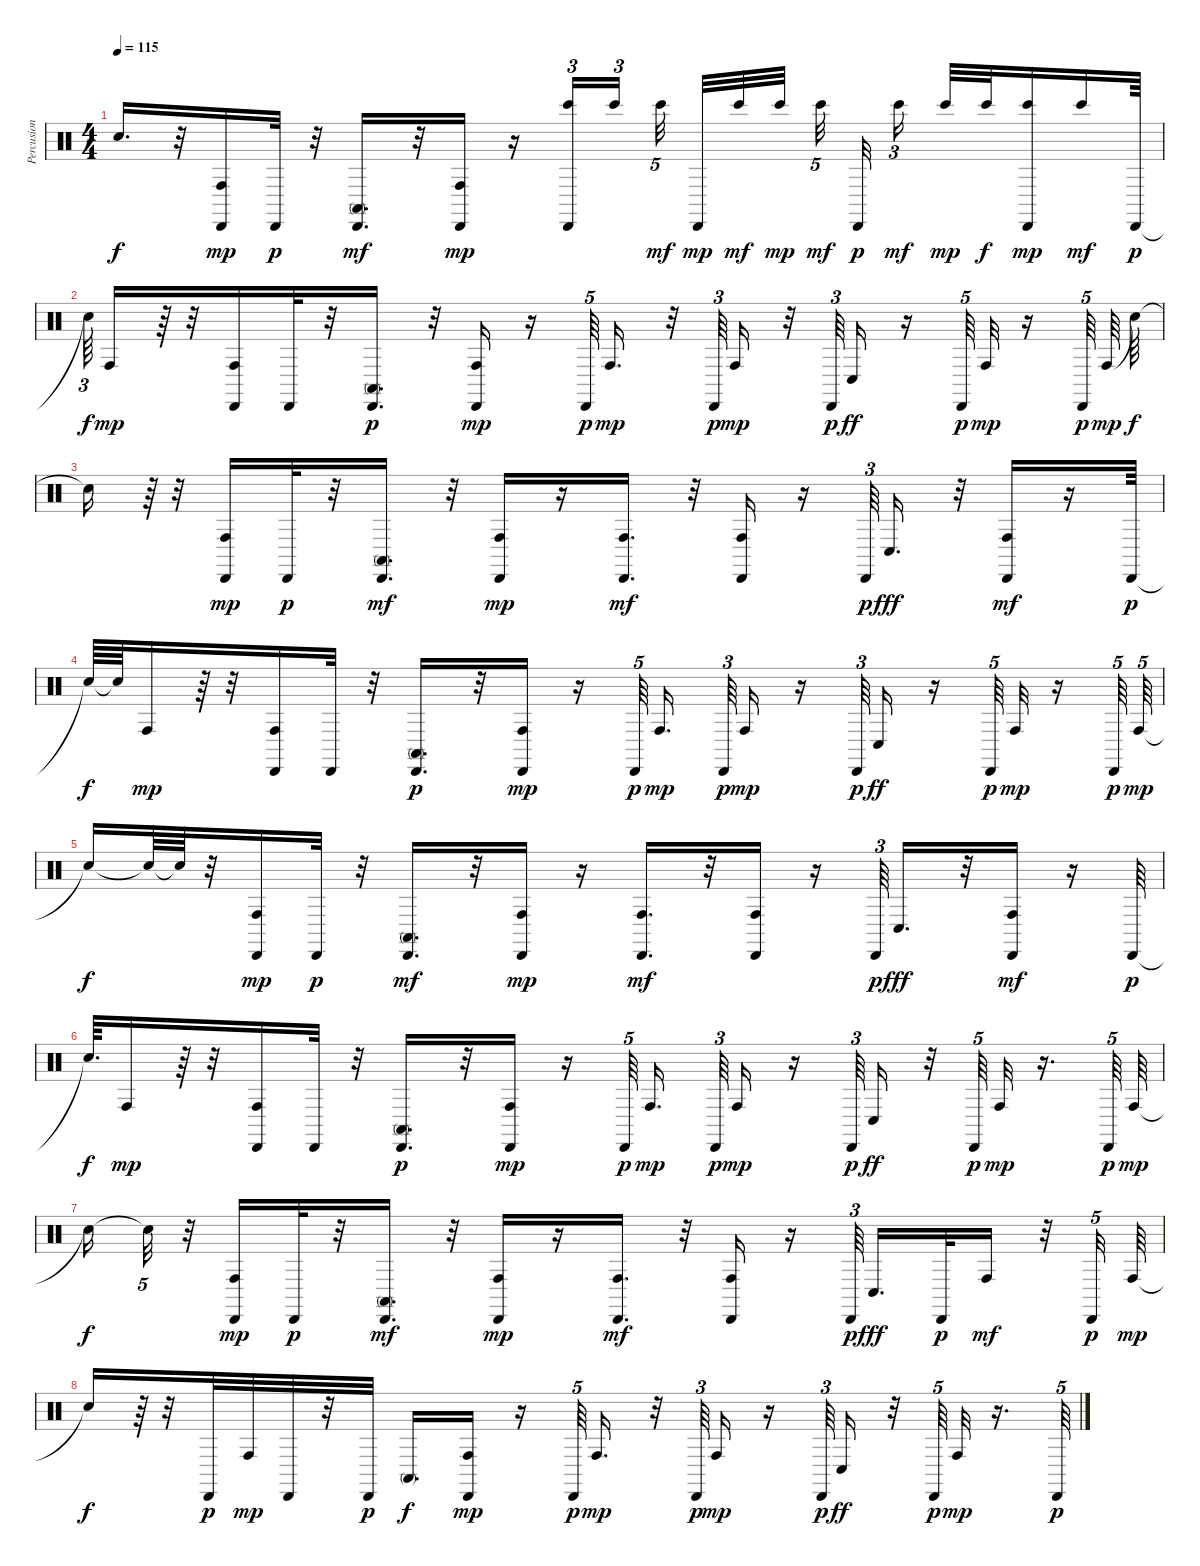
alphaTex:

\track ("Percusion" "Percusion") {instrument percussion}
\staff {score}
\articulation defaults
\ts (4 4)
\tempo 115
\clef neutral
\ks c "Snare (hit)"{t}.16{d dy f}
r.32 ("Cabasa (hit)" "Conga high (hit)").16{dy mp} "Cabasa (hit)".32{dy p} r.32 ("Cabasa (hit)" "Conga high (mute)").16{d dy mf} r.32 ("Cabasa (hit)" "Conga high (hit)").16{dy mp} r.16 ("Cabasa (hit)" "Bongo High (hit)").16{tu (3 2)} "Bongo High (hit)".16{tu (3 2)} "Bongo High (hit)".32{tu (5 4) dy mf beam splitsecondary} "Cabasa (hit)".32{dy mp} "Bongo High (hit)".32{dy mf} "Bongo High (hit)".32{dy mp beam splitsecondary} "Bongo High (hit)".32{tu (5 4) dy mf} "Cabasa (hit)".32{dy p} "Bongo High (hit)".16{tu (3 2) dy mf beam splitsecondary} "Bongo High (hit)".32{dy mp} "Bongo High (hit)".32{dy f} ("Cabasa (hit)" "Bongo High (hit)").16{dy mp} "Bongo High (hit)".16{dy mf} "Cabasa (hit)".64{dy p} |
"Snare (hit)"{t}.64{tu (3 2) dy f} "Conga high (hit)".16{dy mp} r.64 r.32 ("Cabasa (hit)" "Conga high (hit)").16 "Cabasa (hit)".32 r.32 ("Cabasa (hit)" "Conga high (mute)").16{d dy p} r.32 ("Cabasa (hit)" "Conga high (hit)").16{dy mp} r.16 "Cabasa (hit)".64{tu (5 4) dy p} "Conga high (hit)".16{d dy mp} r.32 "Cabasa (hit)".64{tu (3 2) dy p} "Conga high (hit)".16{dy mp} r.32 "Cabasa (hit)".64{tu (3 2) dy p} "Conga low (hit)".16{dy ff} r.16 "Cabasa (hit)".64{tu (5 4) dy p} "Conga high (hit)".32{dy mp} r.16 "Cabasa (hit)".64{tu (5 4) dy p} "Conga high (hit)".64{dy mp} "Snare (hit)"{t}.64{dy f} |
"Snare (hit)"{t}.16 r.64{tu (5 4)} r.32 ("Cabasa (hit)" "Conga high (hit)").16{dy mp} "Cabasa (hit)".32{dy p} r.32 ("Cabasa (hit)" "Conga high (mute)").16{d dy mf} r.32 ("Cabasa (hit)" "Conga high (hit)").16{dy mp} r.16 ("Cabasa (hit)" "Conga high (hit)").16{d dy mf} r.32 ("Cabasa (hit)" "Conga high (hit)").16 r.16 "Cabasa (hit)".64{tu (3 2) dy p} "Conga low (hit)".16{d dy fff} r.32 ("Cabasa (hit)" "Conga high (hit)").16{dy mf} r.16 "Cabasa (hit)".64{dy p} |
"Snare (hit)"{t}.64{dy f} "Snare (hit)"{t}.64 "Conga high (hit)".16{dy mp} r.64 r.32 ("Cabasa (hit)" "Conga high (hit)").16 "Cabasa (hit)".32 r.32 ("Cabasa (hit)" "Conga high (mute)").16{d dy p} r.32 ("Cabasa (hit)" "Conga high (hit)").16{dy mp} r.16 "Cabasa (hit)".64{tu (5 4) dy p beam splitsecondary} "Conga high (hit)".16{d dy mp beam splitsecondary} "Cabasa (hit)".64{tu (3 2) dy p} "Conga high (hit)".16{dy mp} r.16 "Cabasa (hit)".64{tu (3 2) dy p} "Conga low (hit)".16{dy ff} r.16 "Cabasa (hit)".64{tu (5 4) dy p} "Conga high (hit)".32{dy mp} r.16 "Cabasa (hit)".64{tu (5 4) dy p} "Conga high (hit)".64{tu (5 4) dy mp} |
"Snare (hit)"{t}.16{dy f} "Snare (hit)"{t}.64 "Snare (hit)"{t}.64 r.32 ("Cabasa (hit)" "Conga high (hit)").16{dy mp} "Cabasa (hit)".32{dy p} r.32 ("Cabasa (hit)" "Conga high (mute)").16{d dy mf} r.32 ("Cabasa (hit)" "Conga high (hit)").16{dy mp} r.16 ("Cabasa (hit)" "Conga high (hit)").16{d dy mf} r.32 ("Cabasa (hit)" "Conga high (hit)").16 r.16 "Cabasa (hit)".64{tu (3 2) dy p} "Conga low (hit)".16{d dy fff} r.32 ("Cabasa (hit)" "Conga high (hit)").16{dy mf} r.16 "Cabasa (hit)".64{dy p} |
"Snare (hit)"{t}.64{d dy f} "Conga high (hit)".16{dy mp} r.64 r.32 ("Cabasa (hit)" "Conga high (hit)").16 "Cabasa (hit)".32 r.32 ("Cabasa (hit)" "Conga high (mute)").16{d dy p} r.32 ("Cabasa (hit)" "Conga high (hit)").16{dy mp} r.16 "Cabasa (hit)".64{tu (5 4) dy p beam splitsecondary} "Conga high (hit)".16{d dy mp beam splitsecondary} "Cabasa (hit)".64{tu (3 2) dy p} "Conga high (hit)".16{dy mp} r.16 "Cabasa (hit)".64{tu (3 2) dy p} "Conga low (hit)".16{dy ff} r.32 "Cabasa (hit)".64{tu (5 4) dy p} "Conga high (hit)".32{dy mp} r.16{d} "Cabasa (hit)".64{tu (5 4) dy p} "Conga high (hit)".64{dy mp} |
"Snare (hit)"{t}.16{dy f} "Snare (hit)"{t}.32{tu (5 4)} r.32 ("Cabasa (hit)" "Conga high (hit)").16{dy mp} "Cabasa (hit)".32{dy p} r.32 ("Cabasa (hit)" "Conga high (mute)").16{d dy mf} r.32 ("Cabasa (hit)" "Conga high (hit)").16{dy mp} r.16 ("Cabasa (hit)" "Conga high (hit)").16{d dy mf} r.32 ("Cabasa (hit)" "Conga high (hit)").16 r.16 "Cabasa (hit)".64{tu (3 2) dy p} "Conga low (hit)".16{d dy fff} "Cabasa (hit)".32{dy p} "Conga high (hit)".16{dy mf} r.32 "Cabasa (hit)".32{tu (5 4) dy p} "Conga high (hit)".64{dy mp} |
"Snare (hit)"{t}.16{dy f} r.64 r.32 "Cabasa (hit)".32{dy p} "Conga high (hit)".32{dy mp} "Cabasa (hit)".32 r.32 "Cabasa (hit)".32{dy p} "Conga high (mute)".16{d dy f} ("Cabasa (hit)" "Conga high (hit)").16{dy mp} r.16 "Cabasa (hit)".64{tu (5 4) dy p} "Conga high (hit)".16{d dy mp} r.32 "Cabasa (hit)".64{tu (3 2) dy p} "Conga high (hit)".16{dy mp} r.16 "Cabasa (hit)".64{tu (3 2) dy p} "Conga low (hit)".16{dy ff} r.32 "Cabasa (hit)".64{tu (5 4) dy p} "Conga high (hit)".32{dy mp} r.16{d} "Cabasa (hit)".64{tu (5 4) dy p}
